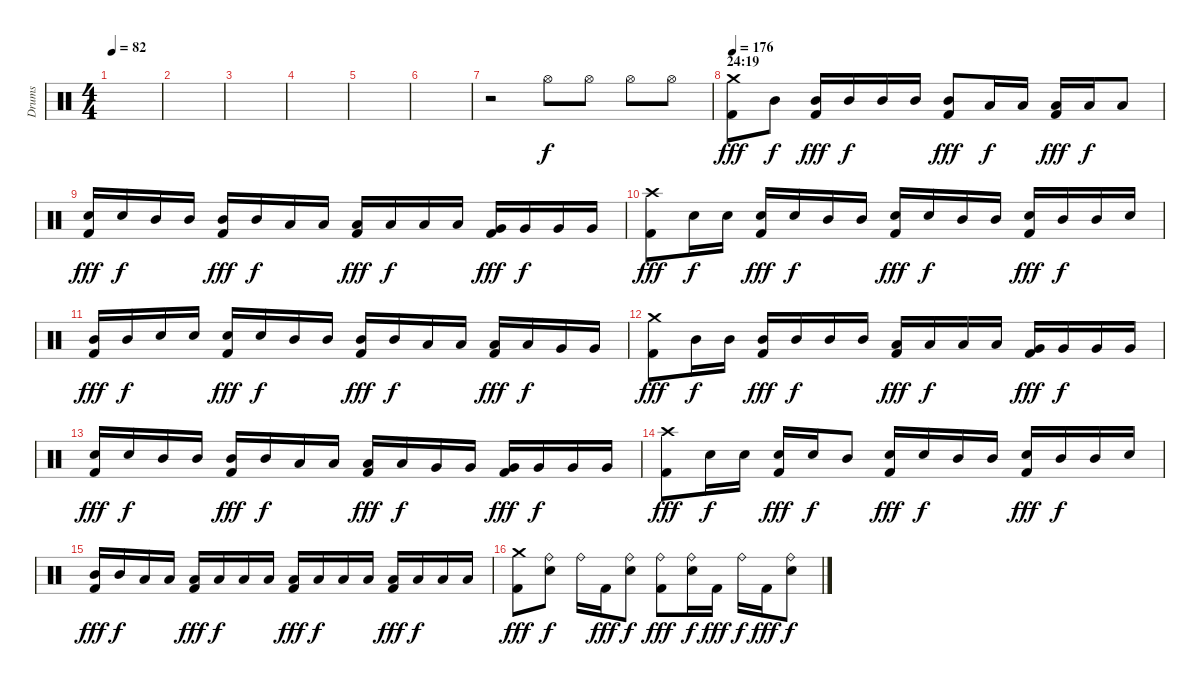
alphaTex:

\track ("Drums" "Drums") {instrument percussion}
\staff {score}
\articulation defaults
\ts (4 4)
\tempo 82
\clef neutral
\ks c
|
|
|
|
|
|
r.2 "Hi-Hat (open)".8{dy f} "Hi-Hat (open)".8 "Hi-Hat (open)".8 "Hi-Hat (open)".8 |
\section ("" "24:19")
\tempo 176
("Crash medium (hit)" "Kick (hit) 2").8{dy fff} "Mid Tom (hit)".8{dy f} ("Mid Tom (hit)" "Kick (hit) 2").16{dy fff} "Mid Tom (hit)".16{dy f} "Mid Tom (hit)".16 "Mid Tom (hit)".16 ("Mid Tom (hit)" "Kick (hit) 2").8{dy fff} "Low Tom (hit)".16{dy f} "Low Tom (hit)".16 ("Low Tom (hit)" "Kick (hit) 2").16{dy fff} "Low Tom (hit)".16{dy f} "Low Tom (hit)".8 |
("Snare (hit) 2" "Kick (hit) 2").16{dy fff} "Snare (hit) 2".16{dy f} "Mid Tom (hit)".16 "Mid Tom (hit)".16 ("Mid Tom (hit)" "Kick (hit) 2").16{dy fff} "Mid Tom (hit)".16{dy f} "Low Tom (hit)".16 "Low Tom (hit)".16 ("Low Tom (hit)" "Kick (hit) 2").16{dy fff} "Low Tom (hit)".16{dy f} "Low Tom (hit)".16 "Low Tom (hit)".16 ("Very Low Tom (hit)" "Kick (hit) 2").16{dy fff} "Very Low Tom (hit)".16{dy f} "Very Low Tom (hit)".16 "Very Low Tom (hit)".16 |
("Crash high (hit)" "Kick (hit) 2").8{dy fff} "Snare (hit) 2".16{dy f} "Snare (hit) 2".16 ("Snare (hit) 2" "Kick (hit) 2").16{dy fff} "Snare (hit) 2".16{dy f} "Mid Tom (hit)".16 "Mid Tom (hit)".16 ("Snare (hit) 2" "Kick (hit) 2").16{dy fff} "Snare (hit) 2".16{dy f} "Mid Tom (hit)".16 "Mid Tom (hit)".16 ("Snare (hit) 2" "Kick (hit) 2").16{dy fff} "Mid Tom (hit)".16{dy f} "Mid Tom (hit)".16 "Snare (hit) 2".16 |
("Mid Tom (hit)" "Kick (hit) 2").16{dy fff} "Mid Tom (hit)".16{dy f} "Snare (hit) 2".16 "Snare (hit) 2".16 ("Snare (hit) 2" "Kick (hit) 2").16{dy fff} "Snare (hit) 2".16{dy f} "Mid Tom (hit)".16 "Mid Tom (hit)".16 ("Mid Tom (hit)" "Kick (hit) 2").16{dy fff} "Mid Tom (hit)".16{dy f} "Low Tom (hit)".16 "Low Tom (hit)".16 ("Low Tom (hit)" "Kick (hit) 2").16{dy fff} "Low Tom (hit)".16{dy f} "Very Low Tom (hit)".16 "Very Low Tom (hit)".16 |
("Crash medium (hit)" "Kick (hit) 2").8{dy fff} "Mid Tom (hit)".16{dy f} "Mid Tom (hit)".16 ("Mid Tom (hit)" "Kick (hit) 2").16{dy fff} "Mid Tom (hit)".16{dy f} "Mid Tom (hit)".16 "Mid Tom (hit)".16 ("Low Tom (hit)" "Kick (hit) 2").16{dy fff} "Low Tom (hit)".16{dy f} "Low Tom (hit)".16 "Low Tom (hit)".16 ("Very Low Tom (hit)" "Kick (hit) 2").16{dy fff} "Very Low Tom (hit)".16{dy f} "Very Low Tom (hit)".16 "Very Low Tom (hit)".16 |
("Snare (hit) 2" "Kick (hit) 2").16{dy fff} "Snare (hit) 2".16{dy f} "Mid Tom (hit)".16 "Mid Tom (hit)".16 ("Mid Tom (hit)" "Kick (hit) 2").16{dy fff} "Mid Tom (hit)".16{dy f} "Low Tom (hit)".16 "Low Tom (hit)".16 ("Low Tom (hit)" "Kick (hit) 2").16{dy fff} "Low Tom (hit)".16{dy f} "Very Low Tom (hit)".16 "Very Low Tom (hit)".16 ("Very Low Tom (hit)" "Kick (hit) 2").16{dy fff} "Very Low Tom (hit)".16{dy f} "Very Low Tom (hit)".16 "Very Low Tom (hit)".16 |
("Crash high (hit)" "Kick (hit) 2").8{dy fff} "Snare (hit) 2".16{dy f} "Snare (hit) 2".16 ("Snare (hit) 2" "Kick (hit) 2").16{dy fff} "Snare (hit) 2".16{dy f} "Mid Tom (hit)".8 ("Snare (hit) 2" "Kick (hit) 2").16{dy fff} "Snare (hit) 2".16{dy f} "Mid Tom (hit)".16 "Mid Tom (hit)".16 ("Snare (hit) 2" "Kick (hit) 2").16{dy fff} "Mid Tom (hit)".16{dy f} "Mid Tom (hit)".16 "Snare (hit) 2".16 |
("Mid Tom (hit)" "Kick (hit) 2").16{dy fff} "Mid Tom (hit)".16{dy f} "Low Tom (hit)".16 "Low Tom (hit)".16 ("Low Tom (hit)" "Kick (hit) 2").16{dy fff} "Low Tom (hit)".16{dy f} "Low Tom (hit)".16 "Low Tom (hit)".16 ("Low Tom (hit)" "Kick (hit) 2").16{dy fff} "Low Tom (hit)".16{dy f} "Low Tom (hit)".16 "Low Tom (hit)".16 ("Low Tom (hit)" "Kick (hit) 2").16{dy fff} "Low Tom (hit)".16{dy f} "Low Tom (hit)".16 "Low Tom (hit)".16 |
("Crash medium (hit)" "Kick (hit) 2").8{dy fff} ("Ride (bell)" "Snare (hit) 2").8{dy f} "Ride (bell)".16 "Kick (hit) 2".16{dy fff} ("Ride (bell)" "Snare (hit) 2").8{dy f} ("Ride (bell)" "Kick (hit) 2").8{dy fff} ("Ride (bell)" "Snare (hit) 2").16{dy f} "Kick (hit) 2".16{dy fff} "Ride (bell)".16{dy f} "Kick (hit) 2".16{dy fff} ("Ride (bell)" "Snare (hit) 2").8{dy f}
